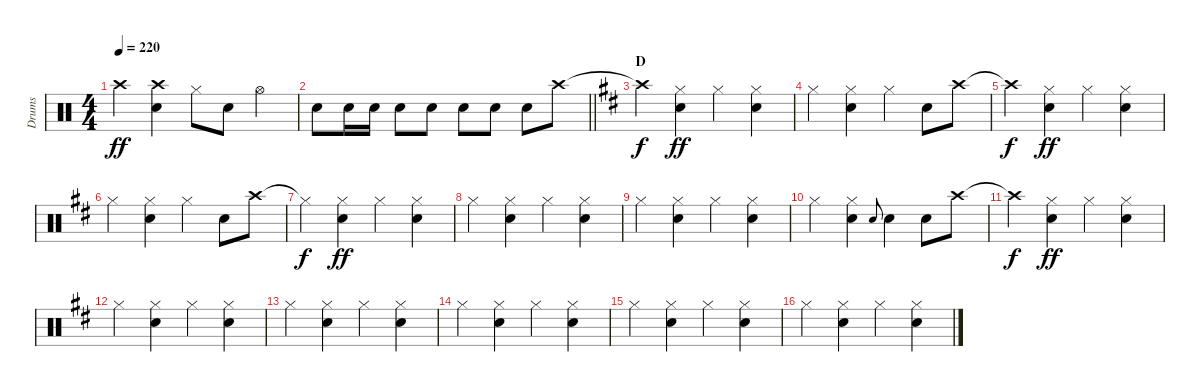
\track ("Drums" "Drums") {instrument percussion}
\staff {score}
\articulation defaults
\ts (4 4)
\tempo 220
\clef neutral
\ks c "Crash high (hit)".4{dy ff}
("Crash high (hit)" "Snare (hit) 2").4 "Hi-Hat (closed)".8 "Snare (hit) 2".8 "Hi-Hat (open)".4 |
\barLineRight lightlight "Snare (hit) 2".8 "Snare (hit) 2".16 "Snare (hit) 2".16 "Snare (hit) 2".8 "Snare (hit) 2".8 "Snare (hit) 2".8 "Snare (hit) 2".8 "Snare (hit) 2".8 "Crash high (hit)".8
|
\section ("" "D")
\ks d "Crash high (hit)"{t}.4{dy f}
("Hi-Hat (closed)" "Snare (hit) 2").4{dy ff} "Hi-Hat (closed)".4 ("Hi-Hat (closed)" "Snare (hit) 2").4 |
"Hi-Hat (closed)".4 ("Hi-Hat (closed)" "Snare (hit) 2").4 "Hi-Hat (closed)".4 "Snare (hit) 2".8 "Crash high (hit)".8 |
"Crash high (hit)"{t}.4{dy f} ("Hi-Hat (closed)" "Snare (hit) 2").4{dy ff} "Hi-Hat (closed)".4 ("Hi-Hat (closed)" "Snare (hit) 2").4 |
"Hi-Hat (closed)".4 ("Hi-Hat (closed)" "Snare (hit) 2").4 "Hi-Hat (closed)".4 "Snare (hit) 2".8 "Crash high (hit)".8 |
"Hi-Hat (closed)"{t}.4{dy f} ("Hi-Hat (closed)" "Snare (hit) 2").4{dy ff} "Hi-Hat (closed)".4 ("Hi-Hat (closed)" "Snare (hit) 2").4 |
"Hi-Hat (closed)".4 ("Hi-Hat (closed)" "Snare (hit) 2").4 "Hi-Hat (closed)".4 ("Hi-Hat (closed)" "Snare (hit) 2").4 |
"Hi-Hat (closed)".4 ("Hi-Hat (closed)" "Snare (hit) 2").4 "Hi-Hat (closed)".4 ("Hi-Hat (closed)" "Snare (hit) 2").4 |
"Hi-Hat (closed)".4 ("Hi-Hat (closed)" "Snare (hit) 2").4 "Snare (hit) 2".8{gr onbeat} "Snare (hit) 2".4 "Snare (hit) 2".8 "Crash high (hit)".8 |
"Crash high (hit)"{t}.4{dy f} ("Hi-Hat (closed)" "Snare (hit) 2").4{dy ff} "Hi-Hat (closed)".4 ("Hi-Hat (closed)" "Snare (hit) 2").4 |
"Hi-Hat (closed)".4 ("Hi-Hat (closed)" "Snare (hit) 2").4 "Hi-Hat (closed)".4 ("Hi-Hat (closed)" "Snare (hit) 2").4 |
"Hi-Hat (closed)".4 ("Hi-Hat (closed)" "Snare (hit) 2").4 "Hi-Hat (closed)".4 ("Hi-Hat (closed)" "Snare (hit) 2").4 |
"Hi-Hat (closed)".4 ("Hi-Hat (closed)" "Snare (hit) 2").4 "Hi-Hat (closed)".4 ("Hi-Hat (closed)" "Snare (hit) 2").4 |
"Hi-Hat (closed)".4 ("Hi-Hat (closed)" "Snare (hit) 2").4 "Hi-Hat (closed)".4 ("Hi-Hat (closed)" "Snare (hit) 2").4 |
"Hi-Hat (closed)".4 ("Hi-Hat (closed)" "Snare (hit) 2").4 "Hi-Hat (closed)".4 ("Hi-Hat (closed)" "Snare (hit) 2").4
